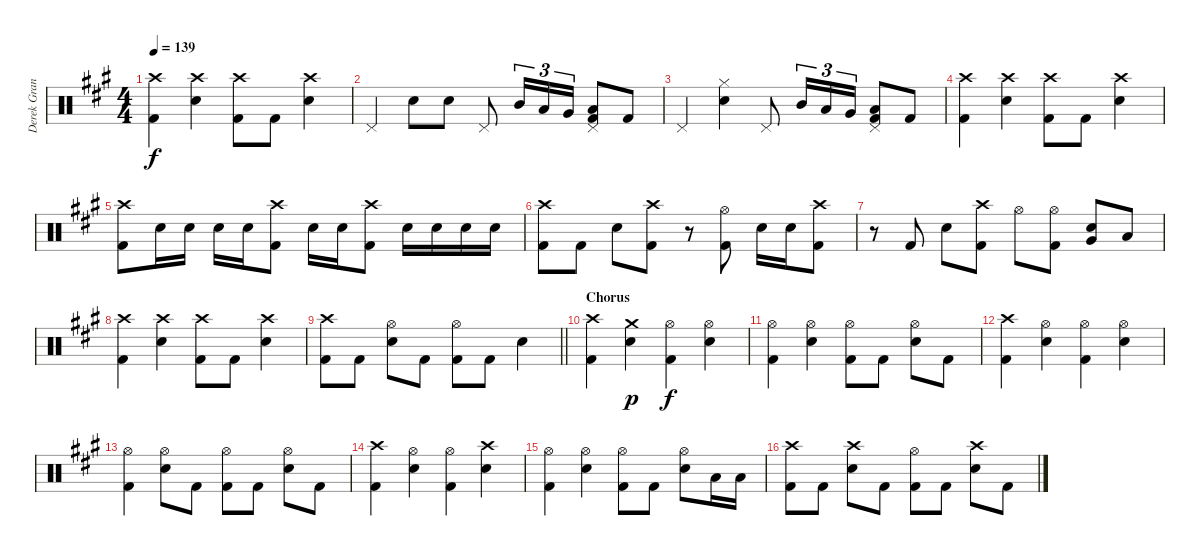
\track ("Derek Grant - Drums" "Derek Gran") {instrument percussion}
\staff {score}
\articulation defaults
\ts (4 4)
\tempo 139
\clef neutral
\ks a
("Kick (hit) 2" "Crash high (hit)").4{dy f} ("Snare (hit) 2" "Crash high (hit)").4 ("Kick (hit) 2" "Crash high (hit)").8 "Kick (hit) 2".8 ("Snare (hit) 2" "Crash high (hit)").4 |
"Pedal Hi-Hat (hit)".4 "Snare (hit) 2".8 "Snare (hit) 2".8 "Pedal Hi-Hat (hit)".8 "Mid Tom (hit)".16{tu (3 2)} "Low Tom (hit)".16{tu (3 2)} "Very Low Tom (hit)".16{tu (3 2)} ("Low Floor Tom (hit)" "Kick (hit) 2" "Pedal Hi-Hat (hit)").8 "Kick (hit) 2".8 |
"Pedal Hi-Hat (hit)".4 ("Snare (hit) 2" "Hi-Hat (closed)").4 "Pedal Hi-Hat (hit)".8 "Mid Tom (hit)".16{tu (3 2)} "Low Tom (hit)".16{tu (3 2)} "Very Low Tom (hit)".16{tu (3 2)} ("Low Floor Tom (hit)" "Kick (hit) 2" "Pedal Hi-Hat (hit)").8 "Kick (hit) 2".8 |
("Kick (hit) 2" "Crash high (hit)").4 ("Snare (hit) 2" "Crash high (hit)").4 ("Kick (hit) 2" "Crash high (hit)").8 "Kick (hit) 2".8 ("Snare (hit) 2" "Crash high (hit)").4 |
("Kick (hit) 2" "Crash high (hit)").8 "Snare (hit) 2".16 "Snare (hit) 2".16 "Snare (hit) 2".16 "Snare (hit) 2".16 ("Kick (hit) 2" "Crash high (hit)").8 "Snare (hit) 2".16 "Snare (hit) 2".16 ("Kick (hit) 2" "Crash high (hit)").8 "Snare (hit) 2".16 "Snare (hit) 2".16 "Snare (hit) 2".16 "Snare (hit) 2".16 |
("Kick (hit) 2" "Crash high (hit)").8 "Kick (hit) 2".8 "Snare (hit) 2".8 ("Kick (hit) 2" "Crash high (hit)").8 r.8 ("Kick (hit) 2" "Hi-Hat (open)").8 "Snare (hit) 2".16 "Snare (hit) 2".16 ("Crash high (hit)" "Kick (hit) 2").8 |
r.8 "Kick (hit) 2".8 "Snare (hit) 2".8 ("Crash high (hit)" "Kick (hit) 2").8 "Hi-Hat (open)".8 ("Kick (hit) 2" "Hi-Hat (open)").8 ("Very Low Tom (hit)" "Snare (hit) 2").8 "Low Floor Tom (hit)".8 |
("Kick (hit) 2" "Crash high (hit)").4 ("Snare (hit) 2" "Crash high (hit)").4 ("Kick (hit) 2" "Crash high (hit)").8 "Kick (hit) 2".8 ("Snare (hit) 2" "Crash high (hit)").4 |
\barLineRight lightlight
("Kick (hit) 2" "Crash high (hit)").8 "Kick (hit) 2".8 ("Snare (hit) 2" "Hi-Hat (open)").8 "Kick (hit) 2".8 ("Kick (hit) 2" "Hi-Hat (open)").8 "Kick (hit) 2".8 "Snare (hit) 2".4 |
\section ("" "Chorus")
("Crash high (hit)" "Kick (hit) 2").4 ("Snare (hit) 2" "Crash medium (hit)").4{dy p} ("Kick (hit) 2" "Hi-Hat (open)").4{dy f} ("Snare (hit) 2" "Hi-Hat (open)").4 |
("Kick (hit) 2" "Hi-Hat (open)").4 ("Snare (hit) 2" "Hi-Hat (open)").4 ("Kick (hit) 2" "Hi-Hat (open)").8 "Kick (hit) 2".8 ("Snare (hit) 2" "Hi-Hat (open)").8 "Kick (hit) 2".8 |
("Crash high (hit)" "Kick (hit) 2").4 ("Snare (hit) 2" "Hi-Hat (open)").4 ("Kick (hit) 2" "Hi-Hat (open)").4 ("Snare (hit) 2" "Hi-Hat (open)").4 |
("Kick (hit) 2" "Hi-Hat (open)").4 ("Snare (hit) 2" "Hi-Hat (open)").8 "Kick (hit) 2".8 ("Kick (hit) 2" "Hi-Hat (open)").8 "Kick (hit) 2".8 ("Snare (hit) 2" "Hi-Hat (open)").8 "Kick (hit) 2".8 |
("Crash high (hit)" "Kick (hit) 2").4 ("Snare (hit) 2" "Hi-Hat (open)").4 ("Kick (hit) 2" "Hi-Hat (open)").4 ("Snare (hit) 2" "Crash high (hit)").4 |
("Kick (hit) 2" "Hi-Hat (open)").4 ("Snare (hit) 2" "Hi-Hat (open)").4 ("Kick (hit) 2" "Hi-Hat (open)").8 "Kick (hit) 2".8 ("Snare (hit) 2" "Hi-Hat (open)").8 "Low Tom (hit)".16 "Low Tom (hit)".16 |
("Kick (hit) 2" "Crash high (hit)").8 "Kick (hit) 2".8 ("Snare (hit) 2" "Crash high (hit)").8 "Kick (hit) 2".8 ("Kick (hit) 2" "Hi-Hat (open)").8 "Kick (hit) 2".8 ("Snare (hit) 2" "Crash high (hit)").8 "Kick (hit) 2".8
